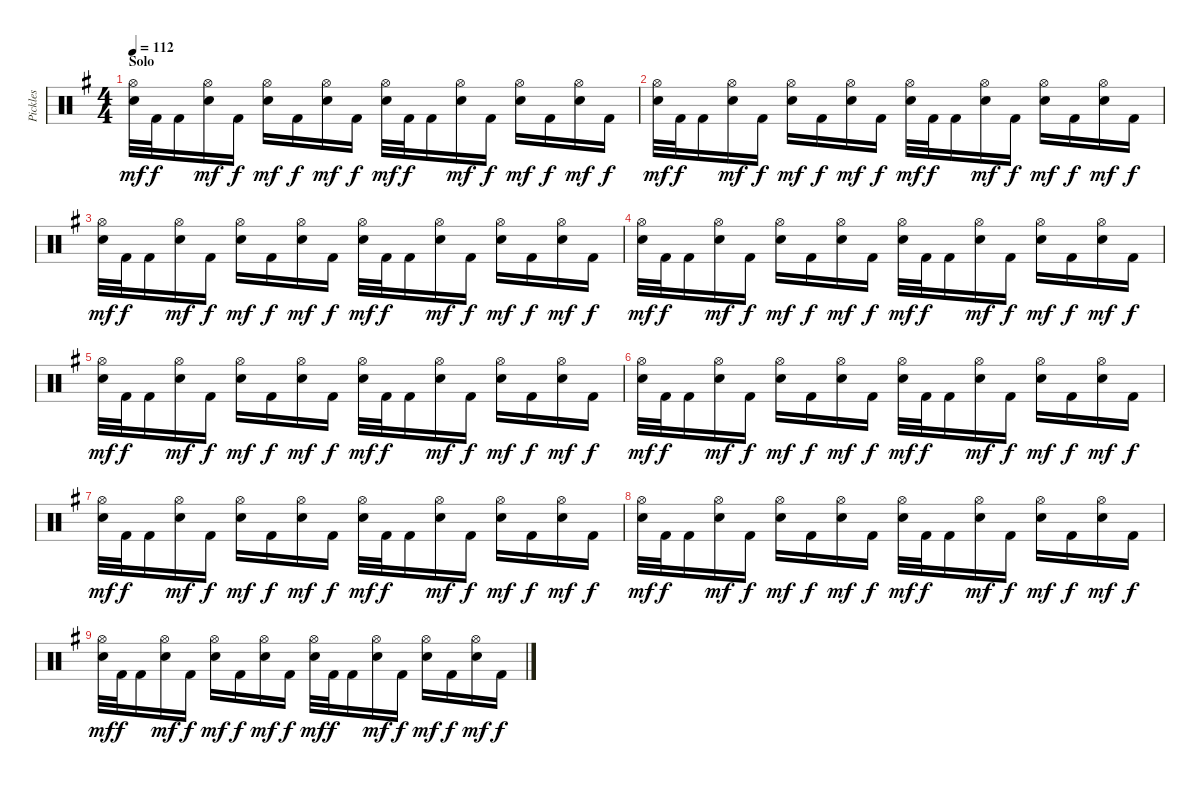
\track ("Pickles" "Pickles") {instrument percussion}
\staff {score}
\articulation defaults
\ts (4 4)
\section ("" "Solo")
\tempo 112
\clef neutral
\ks eminor
("Hi-Hat (open)" "Snare (hit) 2").32{dy mf} "Kick (hit) 2".32{dy f} "Kick (hit) 2".16 ("Hi-Hat (open)" "Snare (hit) 2").16{dy mf} "Kick (hit) 2".16{dy f} ("Hi-Hat (open)" "Snare (hit) 2").16{dy mf} "Kick (hit) 2".16{dy f} ("Hi-Hat (open)" "Snare (hit) 2").16{dy mf} "Kick (hit) 2".16{dy f} ("Hi-Hat (open)" "Snare (hit) 2").32{dy mf} "Kick (hit) 2".32{dy f} "Kick (hit) 2".16 ("Hi-Hat (open)" "Snare (hit) 2").16{dy mf} "Kick (hit) 2".16{dy f} ("Hi-Hat (open)" "Snare (hit) 2").16{dy mf} "Kick (hit) 2".16{dy f} ("Hi-Hat (open)" "Snare (hit) 2").16{dy mf} "Kick (hit) 2".16{dy f} |
("Hi-Hat (open)" "Snare (hit) 2").32{dy mf} "Kick (hit) 2".32{dy f} "Kick (hit) 2".16 ("Hi-Hat (open)" "Snare (hit) 2").16{dy mf} "Kick (hit) 2".16{dy f} ("Hi-Hat (open)" "Snare (hit) 2").16{dy mf} "Kick (hit) 2".16{dy f} ("Hi-Hat (open)" "Snare (hit) 2").16{dy mf} "Kick (hit) 2".16{dy f} ("Hi-Hat (open)" "Snare (hit) 2").32{dy mf} "Kick (hit) 2".32{dy f} "Kick (hit) 2".16 ("Hi-Hat (open)" "Snare (hit) 2").16{dy mf} "Kick (hit) 2".16{dy f} ("Hi-Hat (open)" "Snare (hit) 2").16{dy mf} "Kick (hit) 2".16{dy f} ("Hi-Hat (open)" "Snare (hit) 2").16{dy mf} "Kick (hit) 2".16{dy f} |
("Hi-Hat (open)" "Snare (hit) 2").32{dy mf} "Kick (hit) 2".32{dy f} "Kick (hit) 2".16 ("Hi-Hat (open)" "Snare (hit) 2").16{dy mf} "Kick (hit) 2".16{dy f} ("Hi-Hat (open)" "Snare (hit) 2").16{dy mf} "Kick (hit) 2".16{dy f} ("Hi-Hat (open)" "Snare (hit) 2").16{dy mf} "Kick (hit) 2".16{dy f} ("Hi-Hat (open)" "Snare (hit) 2").32{dy mf} "Kick (hit) 2".32{dy f} "Kick (hit) 2".16 ("Hi-Hat (open)" "Snare (hit) 2").16{dy mf} "Kick (hit) 2".16{dy f} ("Hi-Hat (open)" "Snare (hit) 2").16{dy mf} "Kick (hit) 2".16{dy f} ("Hi-Hat (open)" "Snare (hit) 2").16{dy mf} "Kick (hit) 2".16{dy f} |
("Hi-Hat (open)" "Snare (hit) 2").32{dy mf} "Kick (hit) 2".32{dy f} "Kick (hit) 2".16 ("Hi-Hat (open)" "Snare (hit) 2").16{dy mf} "Kick (hit) 2".16{dy f} ("Hi-Hat (open)" "Snare (hit) 2").16{dy mf} "Kick (hit) 2".16{dy f} ("Hi-Hat (open)" "Snare (hit) 2").16{dy mf} "Kick (hit) 2".16{dy f} ("Hi-Hat (open)" "Snare (hit) 2").32{dy mf} "Kick (hit) 2".32{dy f} "Kick (hit) 2".16 ("Hi-Hat (open)" "Snare (hit) 2").16{dy mf} "Kick (hit) 2".16{dy f} ("Hi-Hat (open)" "Snare (hit) 2").16{dy mf} "Kick (hit) 2".16{dy f} ("Hi-Hat (open)" "Snare (hit) 2").16{dy mf} "Kick (hit) 2".16{dy f} |
("Hi-Hat (open)" "Snare (hit) 2").32{dy mf} "Kick (hit) 2".32{dy f} "Kick (hit) 2".16 ("Hi-Hat (open)" "Snare (hit) 2").16{dy mf} "Kick (hit) 2".16{dy f} ("Hi-Hat (open)" "Snare (hit) 2").16{dy mf} "Kick (hit) 2".16{dy f} ("Hi-Hat (open)" "Snare (hit) 2").16{dy mf} "Kick (hit) 2".16{dy f} ("Hi-Hat (open)" "Snare (hit) 2").32{dy mf} "Kick (hit) 2".32{dy f} "Kick (hit) 2".16 ("Hi-Hat (open)" "Snare (hit) 2").16{dy mf} "Kick (hit) 2".16{dy f} ("Hi-Hat (open)" "Snare (hit) 2").16{dy mf} "Kick (hit) 2".16{dy f} ("Hi-Hat (open)" "Snare (hit) 2").16{dy mf} "Kick (hit) 2".16{dy f} |
("Hi-Hat (open)" "Snare (hit) 2").32{dy mf} "Kick (hit) 2".32{dy f} "Kick (hit) 2".16 ("Hi-Hat (open)" "Snare (hit) 2").16{dy mf} "Kick (hit) 2".16{dy f} ("Hi-Hat (open)" "Snare (hit) 2").16{dy mf} "Kick (hit) 2".16{dy f} ("Hi-Hat (open)" "Snare (hit) 2").16{dy mf} "Kick (hit) 2".16{dy f} ("Hi-Hat (open)" "Snare (hit) 2").32{dy mf} "Kick (hit) 2".32{dy f} "Kick (hit) 2".16 ("Hi-Hat (open)" "Snare (hit) 2").16{dy mf} "Kick (hit) 2".16{dy f} ("Hi-Hat (open)" "Snare (hit) 2").16{dy mf} "Kick (hit) 2".16{dy f} ("Hi-Hat (open)" "Snare (hit) 2").16{dy mf} "Kick (hit) 2".16{dy f} |
("Hi-Hat (open)" "Snare (hit) 2").32{dy mf} "Kick (hit) 2".32{dy f} "Kick (hit) 2".16 ("Hi-Hat (open)" "Snare (hit) 2").16{dy mf} "Kick (hit) 2".16{dy f} ("Hi-Hat (open)" "Snare (hit) 2").16{dy mf} "Kick (hit) 2".16{dy f} ("Hi-Hat (open)" "Snare (hit) 2").16{dy mf} "Kick (hit) 2".16{dy f} ("Hi-Hat (open)" "Snare (hit) 2").32{dy mf} "Kick (hit) 2".32{dy f} "Kick (hit) 2".16 ("Hi-Hat (open)" "Snare (hit) 2").16{dy mf} "Kick (hit) 2".16{dy f} ("Hi-Hat (open)" "Snare (hit) 2").16{dy mf} "Kick (hit) 2".16{dy f} ("Hi-Hat (open)" "Snare (hit) 2").16{dy mf} "Kick (hit) 2".16{dy f} |
("Hi-Hat (open)" "Snare (hit) 2").32{dy mf} "Kick (hit) 2".32{dy f} "Kick (hit) 2".16 ("Hi-Hat (open)" "Snare (hit) 2").16{dy mf} "Kick (hit) 2".16{dy f} ("Hi-Hat (open)" "Snare (hit) 2").16{dy mf} "Kick (hit) 2".16{dy f} ("Hi-Hat (open)" "Snare (hit) 2").16{dy mf} "Kick (hit) 2".16{dy f} ("Hi-Hat (open)" "Snare (hit) 2").32{dy mf} "Kick (hit) 2".32{dy f} "Kick (hit) 2".16 ("Hi-Hat (open)" "Snare (hit) 2").16{dy mf} "Kick (hit) 2".16{dy f} ("Hi-Hat (open)" "Snare (hit) 2").16{dy mf} "Kick (hit) 2".16{dy f} ("Hi-Hat (open)" "Snare (hit) 2").16{dy mf} "Kick (hit) 2".16{dy f} |
("Hi-Hat (open)" "Snare (hit) 2").32{dy mf} "Kick (hit) 2".32{dy f} "Kick (hit) 2".16 ("Hi-Hat (open)" "Snare (hit) 2").16{dy mf} "Kick (hit) 2".16{dy f} ("Hi-Hat (open)" "Snare (hit) 2").16{dy mf} "Kick (hit) 2".16{dy f} ("Hi-Hat (open)" "Snare (hit) 2").16{dy mf} "Kick (hit) 2".16{dy f} ("Hi-Hat (open)" "Snare (hit) 2").32{dy mf} "Kick (hit) 2".32{dy f} "Kick (hit) 2".16 ("Hi-Hat (open)" "Snare (hit) 2").16{dy mf} "Kick (hit) 2".16{dy f} ("Hi-Hat (open)" "Snare (hit) 2").16{dy mf} "Kick (hit) 2".16{dy f} ("Hi-Hat (open)" "Snare (hit) 2").16{dy mf} "Kick (hit) 2".16{dy f}
